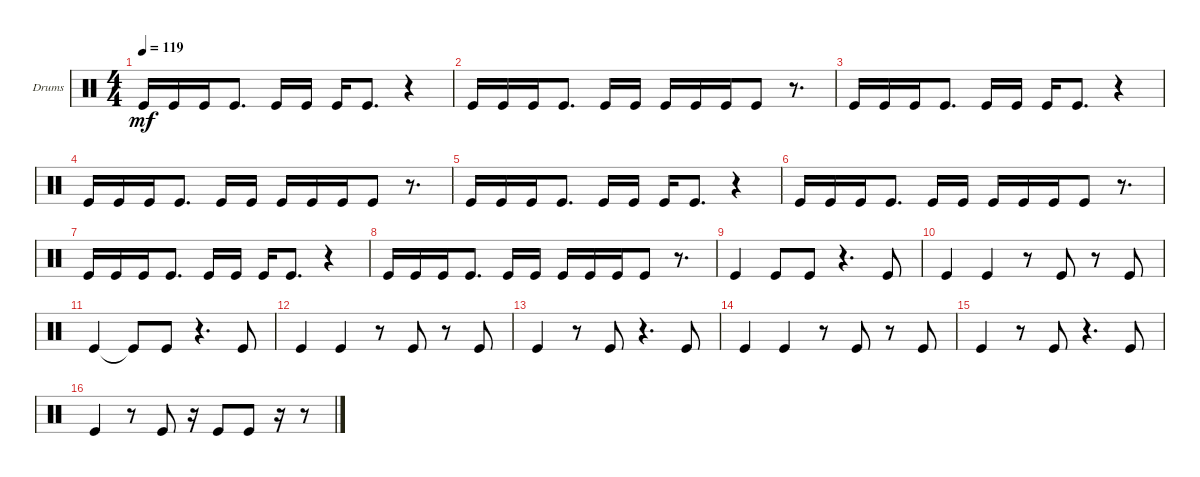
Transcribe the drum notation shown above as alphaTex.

\defaultSystemsLayout 4
\bracketExtendMode groupsimilarinstruments
\firstSystemTrackNameOrientation horizontal
\otherSystemsTrackNameOrientation horizontal
\track ("Kick (hit)" "Drums") {instrument percussion}
\staff {score}
\articulation defaults
\ts (4 4)
\tempo 119
\clef neutral
\scale
0.333333
\ks c "Kick (hit)".16{dy mf} "Kick (hit)".16 "Kick (hit)".16 "Kick (hit)".8{d} "Kick (hit)".16 "Kick (hit)".16 "Kick (hit)".16 "Kick (hit)".8{d}
r.4 |
\scale
0.333333 "Kick (hit)".16 "Kick (hit)".16 "Kick (hit)".16 "Kick (hit)".8{d} "Kick (hit)".16 "Kick (hit)".16 "Kick (hit)".16 "Kick (hit)".16 "Kick (hit)".16 "Kick (hit)".8 r.8{d} |
\scale
0.333333 "Kick (hit)".16 "Kick (hit)".16 "Kick (hit)".16 "Kick (hit)".8{d} "Kick (hit)".16 "Kick (hit)".16 "Kick (hit)".16 "Kick (hit)".8{d} r.4 |
\scale
0.333333 "Kick (hit)".16 "Kick (hit)".16 "Kick (hit)".16 "Kick (hit)".8{d} "Kick (hit)".16 "Kick (hit)".16 "Kick (hit)".16 "Kick (hit)".16 "Kick (hit)".16 "Kick (hit)".8 r.8{d} |
\scale
0.333333 "Kick (hit)".16 "Kick (hit)".16 "Kick (hit)".16 "Kick (hit)".8{d} "Kick (hit)".16 "Kick (hit)".16 "Kick (hit)".16 "Kick (hit)".8{d} r.4 |
\scale
0.333333 "Kick (hit)".16 "Kick (hit)".16 "Kick (hit)".16 "Kick (hit)".8{d} "Kick (hit)".16 "Kick (hit)".16 "Kick (hit)".16 "Kick (hit)".16 "Kick (hit)".16 "Kick (hit)".8 r.8{d} |
\scale
0.333333 "Kick (hit)".16 "Kick (hit)".16 "Kick (hit)".16 "Kick (hit)".8{d} "Kick (hit)".16 "Kick (hit)".16 "Kick (hit)".16 "Kick (hit)".8{d} r.4 |
\scale
0.333333 "Kick (hit)".16 "Kick (hit)".16 "Kick (hit)".16 "Kick (hit)".8{d} "Kick (hit)".16 "Kick (hit)".16 "Kick (hit)".16 "Kick (hit)".16 "Kick (hit)".16 "Kick (hit)".8 r.8{d} |
\scale
0.333333 "Kick (hit)".4 "Kick (hit)".8 "Kick (hit)".8 r.4{d} "Kick (hit)".8 |
\scale
0.333333 "Kick (hit)".4 "Kick (hit)".4 r.8 "Kick (hit)".8 r.8 "Kick (hit)".8 |
\scale
0.333333 "Kick (hit)".4 "Kick (hit)"{t}.8 "Kick (hit)".8 r.4{d} "Kick (hit)".8 |
\scale
0.333333 "Kick (hit)".4 "Kick (hit)".4 r.8 "Kick (hit)".8 r.8 "Kick (hit)".8 |
\scale
0.333333 "Kick (hit)".4 r.8 "Kick (hit)".8 r.4{d} "Kick (hit)".8 |
\scale
0.333333 "Kick (hit)".4 "Kick (hit)".4 r.8 "Kick (hit)".8 r.8 "Kick (hit)".8 |
\scale
0.333333 "Kick (hit)".4 r.8 "Kick (hit)".8 r.4{d} "Kick (hit)".8 |
\scale
0.333333 "Kick (hit)".4 r.8 "Kick (hit)".8 r.16 "Kick (hit)".8 "Kick (hit)".8 r.16 r.8
